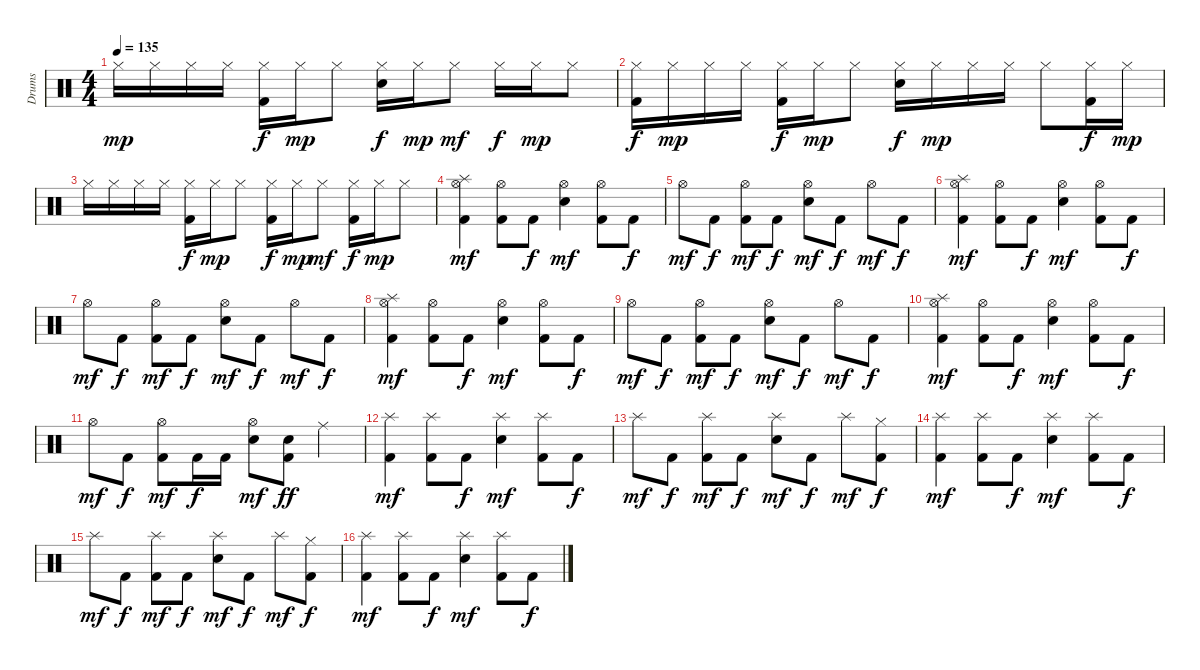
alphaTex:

\track ("Drums" "Drums") {instrument percussion}
\staff {score}
\articulation defaults
\ts (4 4)
\tempo 135
\clef neutral
\ks c "Hi-Hat (closed)".16{dy mp} "Hi-Hat (closed)".16 "Hi-Hat (closed)".16 "Hi-Hat (closed)".16
("Kick (hit) 2" "Hi-Hat (closed)").16{dy f} "Hi-Hat (closed)".16{dy mp} "Hi-Hat (closed)".8 ("Electric Snare (hit)" "Hi-Hat (closed)").16{dy f} "Hi-Hat (closed)".16{dy mp} "Hi-Hat (closed)".8{dy mf} "Hi-Hat (closed)".16{dy f} "Hi-Hat (closed)".16{dy mp} "Hi-Hat (closed)".8 |
("Kick (hit) 2" "Hi-Hat (closed)").16{dy f} "Hi-Hat (closed)".16{dy mp} "Hi-Hat (closed)".16 "Hi-Hat (closed)".16 ("Kick (hit) 2" "Hi-Hat (closed)").16{dy f} "Hi-Hat (closed)".16{dy mp} "Hi-Hat (closed)".8 ("Electric Snare (hit)" "Hi-Hat (closed)").16{dy f} "Hi-Hat (closed)".16{dy mp} "Hi-Hat (closed)".16 "Hi-Hat (closed)".16 "Hi-Hat (closed)".8 ("Kick (hit) 2" "Hi-Hat (closed)").16{dy f} "Hi-Hat (closed)".16{dy mp} |
"Hi-Hat (closed)".16 "Hi-Hat (closed)".16 "Hi-Hat (closed)".16 "Hi-Hat (closed)".16 ("Kick (hit) 2" "Hi-Hat (closed)").16{dy f} "Hi-Hat (closed)".16{dy mp} "Hi-Hat (closed)".8 ("Kick (hit) 2" "Hi-Hat (closed)").16{dy f} "Hi-Hat (closed)".16{dy mp} "Hi-Hat (closed)".8{dy mf} ("Kick (hit) 2" "Hi-Hat (closed)").16{dy f} "Hi-Hat (closed)".16{dy mp} "Hi-Hat (closed)".8 |
("Kick (hit) 2" "Hi-Hat (open)" "Splash (hit)").4{dy mf} ("Kick (hit) 2" "Hi-Hat (open)").8 "Kick (hit) 2".8{dy f} ("Electric Snare (hit)" "Hi-Hat (open)").4{dy mf} ("Kick (hit) 2" "Hi-Hat (open)").8 "Kick (hit) 2".8{dy f} |
"Hi-Hat (open)".8{dy mf} "Kick (hit) 2".8{dy f} ("Kick (hit) 2" "Hi-Hat (open)").8{dy mf} "Kick (hit) 2".8{dy f} ("Electric Snare (hit)" "Hi-Hat (open)").8{dy mf} "Kick (hit) 2".8{dy f} "Hi-Hat (open)".8{dy mf} "Kick (hit) 2".8{dy f} |
("Kick (hit) 2" "Hi-Hat (open)" "Splash (hit)").4{dy mf} ("Kick (hit) 2" "Hi-Hat (open)").8 "Kick (hit) 2".8{dy f} ("Electric Snare (hit)" "Hi-Hat (open)").4{dy mf} ("Kick (hit) 2" "Hi-Hat (open)").8 "Kick (hit) 2".8{dy f} |
"Hi-Hat (open)".8{dy mf} "Kick (hit) 2".8{dy f} ("Kick (hit) 2" "Hi-Hat (open)").8{dy mf} "Kick (hit) 2".8{dy f} ("Electric Snare (hit)" "Hi-Hat (open)").8{dy mf} "Kick (hit) 2".8{dy f} "Hi-Hat (open)".8{dy mf} "Kick (hit) 2".8{dy f} |
("Kick (hit) 2" "Hi-Hat (open)" "Splash (hit)").4{dy mf} ("Kick (hit) 2" "Hi-Hat (open)").8 "Kick (hit) 2".8{dy f} ("Electric Snare (hit)" "Hi-Hat (open)").4{dy mf} ("Kick (hit) 2" "Hi-Hat (open)").8 "Kick (hit) 2".8{dy f} |
"Hi-Hat (open)".8{dy mf} "Kick (hit) 2".8{dy f} ("Kick (hit) 2" "Hi-Hat (open)").8{dy mf} "Kick (hit) 2".8{dy f} ("Electric Snare (hit)" "Hi-Hat (open)").8{dy mf} "Kick (hit) 2".8{dy f} "Hi-Hat (open)".8{dy mf} "Kick (hit) 2".8{dy f} |
("Kick (hit) 2" "Hi-Hat (open)" "Splash (hit)").4{dy mf} ("Kick (hit) 2" "Hi-Hat (open)").8 "Kick (hit) 2".8{dy f} ("Electric Snare (hit)" "Hi-Hat (open)").4{dy mf} ("Kick (hit) 2" "Hi-Hat (open)").8 "Kick (hit) 2".8{dy f} |
"Hi-Hat (open)".8{dy mf} "Kick (hit) 2".8{dy f} ("Kick (hit) 2" "Hi-Hat (open)").8{dy mf} "Kick (hit) 2".16{dy f} "Kick (hit) 2".16 ("Electric Snare (hit)" "Hi-Hat (open)").8{dy mf} ("Kick (hit) 2" "Electric Snare (hit)").8{dy ff} "Ride (middle)".4 |
("Kick (hit) 2" "Splash (hit)").4{dy mf} ("Kick (hit) 2" "Splash (hit)").8 "Kick (hit) 2".8{dy f} ("Electric Snare (hit)" "Splash (hit)").4{dy mf} ("Kick (hit) 2" "Splash (hit)").8 "Kick (hit) 2".8{dy f} |
"Splash (hit)".8{dy mf} "Kick (hit) 2".8{dy f} ("Kick (hit) 2" "Splash (hit)").8{dy mf} "Kick (hit) 2".8{dy f} ("Electric Snare (hit)" "Splash (hit)").8{dy mf} "Kick (hit) 2".8{dy f} "Splash (hit)".8{dy mf} ("Kick (hit) 2" "Hi-Hat (closed)").8{dy f} |
("Kick (hit) 2" "Splash (hit)").4{dy mf} ("Kick (hit) 2" "Splash (hit)").8 "Kick (hit) 2".8{dy f} ("Electric Snare (hit)" "Splash (hit)").4{dy mf} ("Kick (hit) 2" "Splash (hit)").8 "Kick (hit) 2".8{dy f} |
"Splash (hit)".8{dy mf} "Kick (hit) 2".8{dy f} ("Kick (hit) 2" "Splash (hit)").8{dy mf} "Kick (hit) 2".8{dy f} ("Electric Snare (hit)" "Splash (hit)").8{dy mf} "Kick (hit) 2".8{dy f} "Splash (hit)".8{dy mf} ("Kick (hit) 2" "Hi-Hat (closed)").8{dy f} |
("Kick (hit) 2" "Splash (hit)").4{dy mf} ("Kick (hit) 2" "Splash (hit)").8 "Kick (hit) 2".8{dy f} ("Electric Snare (hit)" "Splash (hit)").4{dy mf} ("Kick (hit) 2" "Splash (hit)").8 "Kick (hit) 2".8{dy f}
